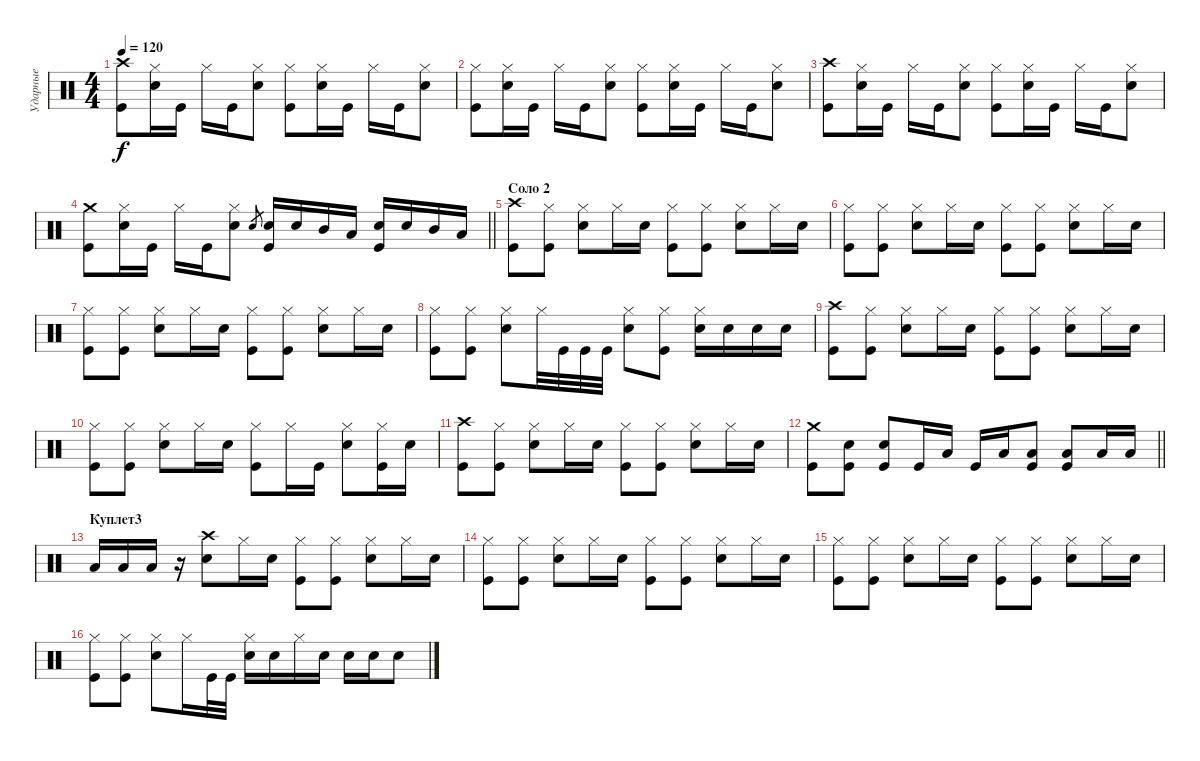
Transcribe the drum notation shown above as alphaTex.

\track ("Ударные" "Ударные") {instrument percussion}
\staff {score}
\articulation defaults
\ts (4 4)
\tempo 120
\clef neutral
\ks c
("Crash high (hit)" "Kick (hit)").8{dy f} ("Hi-Hat (closed)" "Snare (hit) 2").16 "Kick (hit)".16 "Hi-Hat (closed)".16 "Kick (hit)".16 ("Hi-Hat (closed)" "Snare (hit) 2").8 ("Hi-Hat (closed)" "Kick (hit)").8 ("Hi-Hat (closed)" "Snare (hit) 2").16 "Kick (hit)".16 "Hi-Hat (closed)".16 "Kick (hit)".16 ("Hi-Hat (closed)" "Snare (hit) 2").8 |
("Hi-Hat (closed)" "Kick (hit)").8 ("Hi-Hat (closed)" "Snare (hit) 2").16 "Kick (hit)".16 "Hi-Hat (closed)".16 "Kick (hit)".16 ("Hi-Hat (closed)" "Snare (hit) 2").8 ("Hi-Hat (closed)" "Kick (hit)").8 ("Hi-Hat (closed)" "Snare (hit) 2").16 "Kick (hit)".16 "Hi-Hat (closed)".16 "Kick (hit)".16 ("Hi-Hat (closed)" "Snare (hit) 2").8 |
("Crash high (hit)" "Kick (hit)").8 ("Hi-Hat (closed)" "Snare (hit) 2").16 "Kick (hit)".16 "Hi-Hat (closed)".16 "Kick (hit)".16 ("Hi-Hat (closed)" "Snare (hit) 2").8 ("Hi-Hat (closed)" "Kick (hit)").8 ("Hi-Hat (closed)" "Snare (hit) 2").16 "Kick (hit)".16 "Hi-Hat (closed)".16 "Kick (hit)".16 ("Hi-Hat (closed)" "Snare (hit) 2").8 |
\barLineRight lightlight
("Crash medium (hit)" "Kick (hit)").8 ("Hi-Hat (closed)" "Snare (hit) 2").16 "Kick (hit)".16 "Hi-Hat (closed)".16 "Kick (hit)".16 ("Hi-Hat (closed)" "Snare (hit) 2").8 "Snare (hit) 2".8{gr} ("Snare (hit) 2" "Kick (hit)").16 "Snare (hit) 2".16 "Mid Tom (hit)".16 "Low Tom (hit)".16 ("Snare (hit) 2" "Kick (hit)").16 "Snare (hit) 2".16 "Mid Tom (hit)".16 "Low Tom (hit)".16 |
\section ("" "Соло 2")
("Crash high (hit)" "Kick (hit)").8 ("Hi-Hat (closed)" "Kick (hit)").8 ("Hi-Hat (closed)" "Snare (hit) 2").8 "Hi-Hat (closed)".16 "Snare (hit) 2".16 ("Hi-Hat (closed)" "Kick (hit)").8 ("Hi-Hat (closed)" "Kick (hit)").8 ("Hi-Hat (closed)" "Snare (hit) 2").8 "Hi-Hat (closed)".16 "Snare (hit) 2".16 |
("Hi-Hat (closed)" "Kick (hit)").8 ("Hi-Hat (closed)" "Kick (hit)").8 ("Hi-Hat (closed)" "Snare (hit) 2").8 "Hi-Hat (closed)".16 "Snare (hit) 2".16 ("Hi-Hat (closed)" "Kick (hit)").8 ("Hi-Hat (closed)" "Kick (hit)").8 ("Hi-Hat (closed)" "Snare (hit) 2").8 "Hi-Hat (closed)".16 "Snare (hit) 2".16 |
("Hi-Hat (closed)" "Kick (hit)").8 ("Hi-Hat (closed)" "Kick (hit)").8 ("Hi-Hat (closed)" "Snare (hit) 2").8 "Hi-Hat (closed)".16 "Snare (hit) 2".16 ("Hi-Hat (closed)" "Kick (hit)").8 ("Hi-Hat (closed)" "Kick (hit)").8 ("Hi-Hat (closed)" "Snare (hit) 2").8 "Hi-Hat (closed)".16 "Snare (hit) 2".16 |
("Hi-Hat (closed)" "Kick (hit)").8 ("Hi-Hat (closed)" "Kick (hit)").8 ("Hi-Hat (closed)" "Snare (hit) 2").8 "Hi-Hat (closed)".32 "Kick (hit)".32 "Kick (hit)".32 "Kick (hit)".32 ("Hi-Hat (closed)" "Snare (hit) 2").8 ("Hi-Hat (closed)" "Kick (hit)").8 ("Hi-Hat (closed)" "Snare (hit) 2").16 "Snare (hit) 2".16 "Snare (hit) 2".16 "Snare (hit) 2".16 |
("Crash high (hit)" "Kick (hit)").8 ("Hi-Hat (closed)" "Kick (hit)").8 ("Hi-Hat (closed)" "Snare (hit) 2").8 "Hi-Hat (closed)".16 "Snare (hit) 2".16 ("Hi-Hat (closed)" "Kick (hit)").8 ("Hi-Hat (closed)" "Kick (hit)").8 ("Hi-Hat (closed)" "Snare (hit) 2").8 "Hi-Hat (closed)".16 "Snare (hit) 2".16 |
("Hi-Hat (closed)" "Kick (hit)").8 ("Hi-Hat (closed)" "Kick (hit)").8 ("Hi-Hat (closed)" "Snare (hit) 2").8 "Hi-Hat (closed)".16 "Snare (hit) 2".16 ("Hi-Hat (closed)" "Kick (hit)").8 "Hi-Hat (closed)".16 "Kick (hit)".16 ("Hi-Hat (closed)" "Snare (hit) 2").8 ("Hi-Hat (closed)" "Kick (hit)").16 "Snare (hit) 2".16 |
("Crash high (hit)" "Kick (hit)").8 ("Hi-Hat (closed)" "Kick (hit)").8 ("Hi-Hat (closed)" "Snare (hit) 2").8 "Hi-Hat (closed)".16 "Snare (hit) 2".16 ("Hi-Hat (closed)" "Kick (hit)").8 ("Hi-Hat (closed)" "Kick (hit)").8 ("Hi-Hat (closed)" "Snare (hit) 2").8 "Hi-Hat (closed)".16 "Snare (hit) 2".16 |
\barLineRight lightlight
("Crash medium (hit)" "Kick (hit)").8 ("Snare (hit) 2" "Kick (hit)").8 ("Snare (hit) 2" "Kick (hit)").8 "Kick (hit)".16 "Low Tom (hit)".16 "Kick (hit)".16 "Low Tom (hit)".16 ("Low Tom (hit)" "Kick (hit)").8 ("Low Tom (hit)" "Kick (hit)").8 "Low Tom (hit)".16 "Low Tom (hit)".16 |
\section ("" "Куплет3")
"Low Tom (hit)".16 "Low Tom (hit)".16 "Low Tom (hit)".16 r.16 ("Crash high (hit)" "Snare (hit) 2").8 "Hi-Hat (closed)".16 "Snare (hit) 2".16 ("Hi-Hat (closed)" "Kick (hit)").8 ("Hi-Hat (closed)" "Kick (hit)").8 ("Hi-Hat (closed)" "Snare (hit) 2").8 "Hi-Hat (closed)".16 "Snare (hit) 2".16 |
("Hi-Hat (closed)" "Kick (hit)").8 ("Hi-Hat (closed)" "Kick (hit)").8 ("Hi-Hat (closed)" "Snare (hit) 2").8 "Hi-Hat (closed)".16 "Snare (hit) 2".16 ("Hi-Hat (closed)" "Kick (hit)").8 ("Hi-Hat (closed)" "Kick (hit)").8 ("Hi-Hat (closed)" "Snare (hit) 2").8 "Hi-Hat (closed)".16 "Snare (hit) 2".16 |
("Hi-Hat (closed)" "Kick (hit)").8 ("Hi-Hat (closed)" "Kick (hit)").8 ("Hi-Hat (closed)" "Snare (hit) 2").8 "Hi-Hat (closed)".16 "Snare (hit) 2".16 ("Hi-Hat (closed)" "Kick (hit)").8 ("Hi-Hat (closed)" "Kick (hit)").8 ("Hi-Hat (closed)" "Snare (hit) 2").8 "Hi-Hat (closed)".16 "Snare (hit) 2".16 |
("Hi-Hat (closed)" "Kick (hit)").8 ("Hi-Hat (closed)" "Kick (hit)").8 ("Hi-Hat (closed)" "Snare (hit) 2").8 "Hi-Hat (closed)".16 "Kick (hit)".32 "Kick (hit)".32 ("Hi-Hat (closed)" "Snare (hit) 2").16 "Snare (hit) 2".16 "Hi-Hat (closed)".16 "Snare (hit) 2".16 "Snare (hit) 2".16 "Snare (hit) 2".16 "Snare (hit) 2".8
